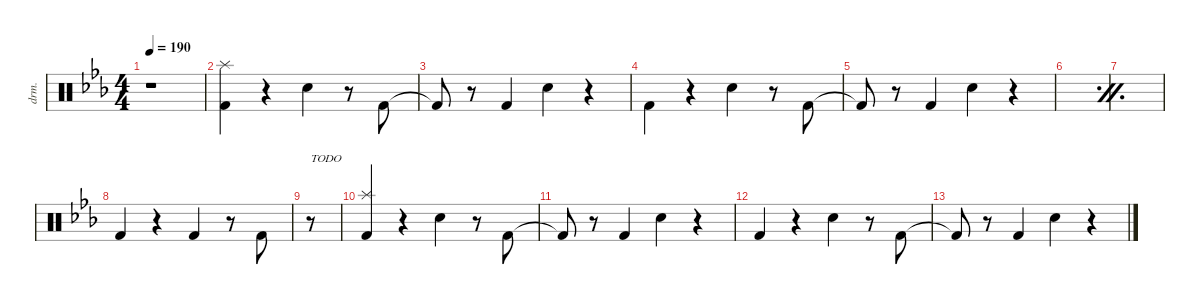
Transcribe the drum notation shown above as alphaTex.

\defaultSystemsLayout 4
\hideDynamics
\bracketExtendMode nobrackets
\track ("Drumkit" "drm.") {instrument percussion}
\staff {score}
\articulation defaults
\ts (4 4)
\tempo 190
\clef neutral
\ks cminor
r.1{dy mf beam Down} |
("Splash (hit)"{acc forcenatural} "Kick (hit) 2"{acc forcenatural}).4{beam Down} r.4{beam Down} "Snare (hit) 2"{acc forcenatural}.4{beam Down} r.8{beam Down} "Kick (hit) 2"{acc forcenatural}.8{beam Up} |
"Kick (hit) 2"{t acc forcenatural}.8{beam Up} r.8{beam Down} "Kick (hit) 2"{acc forcenatural}.4{beam Up} "Snare (hit) 2"{acc forcenatural}.4{beam Down} r.4{beam Down} |
"Kick (hit) 2"{acc forcenatural}.4{beam Down} r.4{beam Down} "Snare (hit) 2"{acc forcenatural}.4{beam Down} r.8{beam Down} "Kick (hit) 2"{acc forcenatural}.8{beam Up} |
"Kick (hit) 2"{t acc forcenatural}.8{beam Up} r.8{beam Down} "Kick (hit) 2"{acc forcenatural}.4{beam Up} "Snare (hit) 2"{acc forcenatural}.4{beam Down} r.4{beam Down} |
\simile firstofdouble
|
\simile secondofdouble
|
\simile none "Kick (hit) 2"{acc forcenatural}.4{beam Up}
r.4{beam Down} "Kick (hit) 2"{acc forcenatural}.4{beam Up} r.8{beam Down} "Kick (hit) 2"{acc forcenatural}.8{beam Up} |
r.8{txt "TODO" beam Down} |
("Kick (hit) 2"{acc forcenatural} "Splash (hit)"{acc forcenatural}).4{beam Up} r.4{beam Down} "Snare (hit) 2"{acc forcenatural}.4{beam Down} r.8{beam Down} "Kick (hit) 2"{acc forcenatural}.8{beam Up} |
"Kick (hit) 2"{t acc forcenatural}.8{beam Up} r.8{beam Down} "Kick (hit) 2"{acc forcenatural}.4{beam Up} "Snare (hit) 2"{acc forcenatural}.4{beam Down} r.4{beam Down} |
"Kick (hit) 2"{acc forcenatural}.4{beam Up} r.4{beam Down} "Snare (hit) 2"{acc forcenatural}.4{beam Down} r.8{beam Down} "Kick (hit) 2"{acc forcenatural}.8{beam Up} |
"Kick (hit) 2"{t acc forcenatural}.8{beam Up} r.8{beam Down} "Kick (hit) 2"{acc forcenatural}.4{beam Up} "Snare (hit) 2"{acc forcenatural}.4{beam Down} r.4{beam Down}
